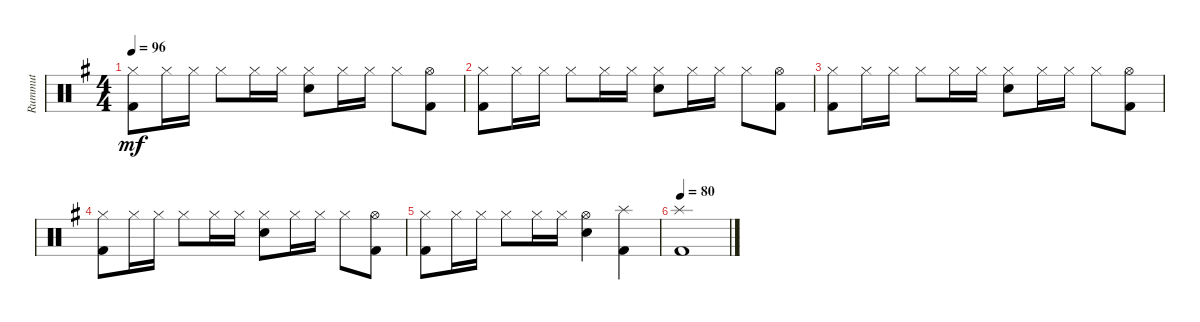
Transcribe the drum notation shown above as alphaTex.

\track ("Rummut" "Rummut") {instrument percussion}
\staff {score}
\articulation defaults
\ts (4 4)
\tempo 96
\clef neutral
\ks g
("Kick (hit) 2" "Hi-Hat (closed)").8{dy mf} "Hi-Hat (closed)".16 "Hi-Hat (closed)".16 "Hi-Hat (closed)".8 "Hi-Hat (closed)".16 "Hi-Hat (closed)".16 ("Hi-Hat (closed)" "Snare (hit) 2").8 "Hi-Hat (closed)".16 "Hi-Hat (closed)".16 "Hi-Hat (closed)".8 ("Kick (hit) 2" "Hi-Hat (open)").8 |
("Kick (hit) 2" "Hi-Hat (closed)").8 "Hi-Hat (closed)".16 "Hi-Hat (closed)".16 "Hi-Hat (closed)".8 "Hi-Hat (closed)".16 "Hi-Hat (closed)".16 ("Hi-Hat (closed)" "Snare (hit) 2").8 "Hi-Hat (closed)".16 "Hi-Hat (closed)".16 "Hi-Hat (closed)".8 ("Kick (hit) 2" "Hi-Hat (open)").8 |
("Kick (hit) 2" "Hi-Hat (closed)").8 "Hi-Hat (closed)".16 "Hi-Hat (closed)".16 "Hi-Hat (closed)".8 "Hi-Hat (closed)".16 "Hi-Hat (closed)".16 ("Hi-Hat (closed)" "Snare (hit) 2").8 "Hi-Hat (closed)".16 "Hi-Hat (closed)".16 "Hi-Hat (closed)".8 ("Kick (hit) 2" "Hi-Hat (open)").8 |
("Kick (hit) 2" "Hi-Hat (closed)").8 "Hi-Hat (closed)".16 "Hi-Hat (closed)".16 "Hi-Hat (closed)".8 "Hi-Hat (closed)".16 "Hi-Hat (closed)".16 ("Hi-Hat (closed)" "Snare (hit) 2").8 "Hi-Hat (closed)".16 "Hi-Hat (closed)".16 "Hi-Hat (closed)".8 ("Kick (hit) 2" "Hi-Hat (open)").8 |
("Kick (hit) 2" "Hi-Hat (closed)").8 "Hi-Hat (closed)".16 "Hi-Hat (closed)".16 "Hi-Hat (closed)".8 "Hi-Hat (closed)".16 "Hi-Hat (closed)".16 ("Hi-Hat (open)" "Snare (hit) 2").4 ("Kick (hit) 2" "Splash (hit)").4 |
\tempo 80
("Kick (hit) 2" "Splash (hit)").1
